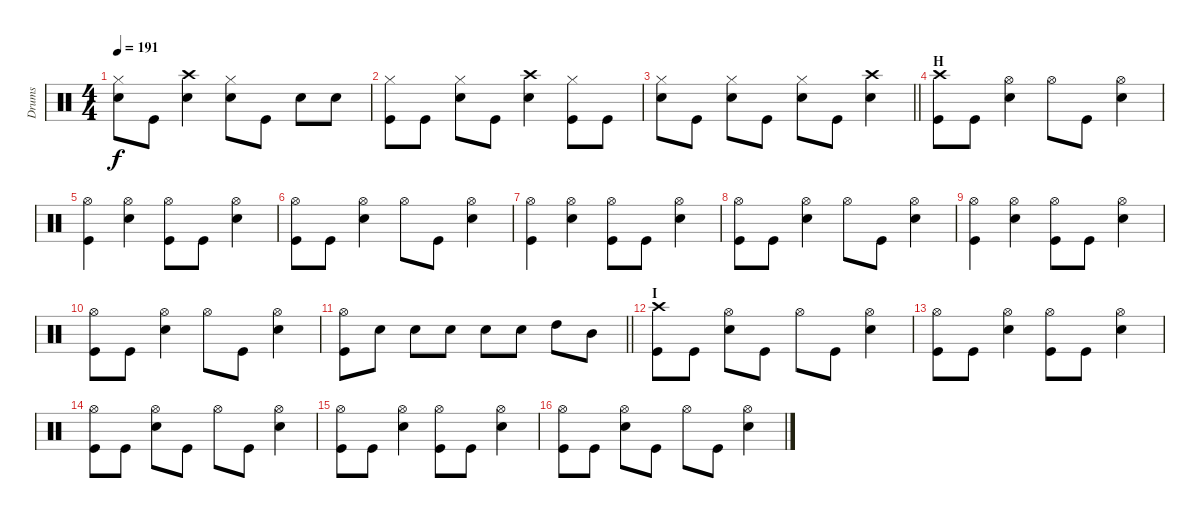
\track ("Drums" "Drums") {instrument percussion}
\staff {score}
\articulation defaults
\ts (4 4)
\tempo 191
\clef neutral
\ks c
("Hi-Hat (closed)" "Electric Snare (hit)").8{dy f} "Kick (hit)".8 ("Crash high (hit)" "Electric Snare (hit)").4 ("Hi-Hat (closed)" "Electric Snare (hit)").8 "Kick (hit)".8 "Electric Snare (hit)".8 "Electric Snare (hit)".8 |
("Hi-Hat (closed)" "Kick (hit)").8 "Kick (hit)".8 ("Hi-Hat (closed)" "Electric Snare (hit)").8 "Kick (hit)".8 ("Crash high (hit)" "Electric Snare (hit)").4 ("Hi-Hat (closed)" "Kick (hit)").8 "Kick (hit)".8 |
\barLineRight lightlight
("Hi-Hat (closed)" "Electric Snare (hit)").8 "Kick (hit)".8 ("Hi-Hat (closed)" "Electric Snare (hit)").8 "Kick (hit)".8 ("Hi-Hat (closed)" "Electric Snare (hit)").8 "Kick (hit)".8 ("Crash high (hit)" "Electric Snare (hit)").4 |
\section ("" "H")
("Crash high (hit)" "Kick (hit)").8 "Kick (hit)".8 ("Hi-Hat (open)" "Electric Snare (hit)").4 "Hi-Hat (open)".8 "Kick (hit)".8 ("Hi-Hat (open)" "Electric Snare (hit)").4 |
("Hi-Hat (open)" "Kick (hit)").4 ("Hi-Hat (open)" "Electric Snare (hit)").4 ("Hi-Hat (open)" "Kick (hit)").8 "Kick (hit)".8 ("Hi-Hat (open)" "Electric Snare (hit)").4 |
("Hi-Hat (open)" "Kick (hit)").8 "Kick (hit)".8 ("Hi-Hat (open)" "Electric Snare (hit)").4 "Hi-Hat (open)".8 "Kick (hit)".8 ("Hi-Hat (open)" "Electric Snare (hit)").4 |
("Hi-Hat (open)" "Kick (hit)").4 ("Hi-Hat (open)" "Electric Snare (hit)").4 ("Hi-Hat (open)" "Kick (hit)").8 "Kick (hit)".8 ("Hi-Hat (open)" "Electric Snare (hit)").4 |
("Hi-Hat (open)" "Kick (hit)").8 "Kick (hit)".8 ("Hi-Hat (open)" "Electric Snare (hit)").4 "Hi-Hat (open)".8 "Kick (hit)".8 ("Hi-Hat (open)" "Electric Snare (hit)").4 |
("Hi-Hat (open)" "Kick (hit)").4 ("Hi-Hat (open)" "Electric Snare (hit)").4 ("Hi-Hat (open)" "Kick (hit)").8 "Kick (hit)".8 ("Hi-Hat (open)" "Electric Snare (hit)").4 |
("Hi-Hat (open)" "Kick (hit)").8 "Kick (hit)".8 ("Hi-Hat (open)" "Electric Snare (hit)").4 "Hi-Hat (open)".8 "Kick (hit)".8 ("Hi-Hat (open)" "Electric Snare (hit)").4 |
\barLineRight lightlight
("Hi-Hat (open)" "Kick (hit)").8 "Electric Snare (hit)".8 "Electric Snare (hit)".8 "Electric Snare (hit)".8 "Electric Snare (hit)".8 "Electric Snare (hit)".8 "High Tom (hit)".8 "Mid Tom (hit)".8 |
\section ("" "I")
("Crash high (hit)" "Kick (hit)").8 "Kick (hit)".8 ("Hi-Hat (open)" "Electric Snare (hit)").8 "Kick (hit)".8 "Hi-Hat (open)".8 "Kick (hit)".8 ("Hi-Hat (open)" "Electric Snare (hit)").4 |
("Hi-Hat (open)" "Kick (hit)").8 "Kick (hit)".8 ("Hi-Hat (open)" "Electric Snare (hit)").4 ("Hi-Hat (open)" "Kick (hit)").8 "Kick (hit)".8 ("Hi-Hat (open)" "Electric Snare (hit)").4 |
("Hi-Hat (open)" "Kick (hit)").8 "Kick (hit)".8 ("Hi-Hat (open)" "Electric Snare (hit)").8 "Kick (hit)".8 "Hi-Hat (open)".8 "Kick (hit)".8 ("Hi-Hat (open)" "Electric Snare (hit)").4 |
("Hi-Hat (open)" "Kick (hit)").8 "Kick (hit)".8 ("Hi-Hat (open)" "Electric Snare (hit)").4 ("Hi-Hat (open)" "Kick (hit)").8 "Kick (hit)".8 ("Hi-Hat (open)" "Electric Snare (hit)").4 |
("Hi-Hat (open)" "Kick (hit)").8 "Kick (hit)".8 ("Hi-Hat (open)" "Electric Snare (hit)").8 "Kick (hit)".8 "Hi-Hat (open)".8 "Kick (hit)".8 ("Hi-Hat (open)" "Electric Snare (hit)").4
